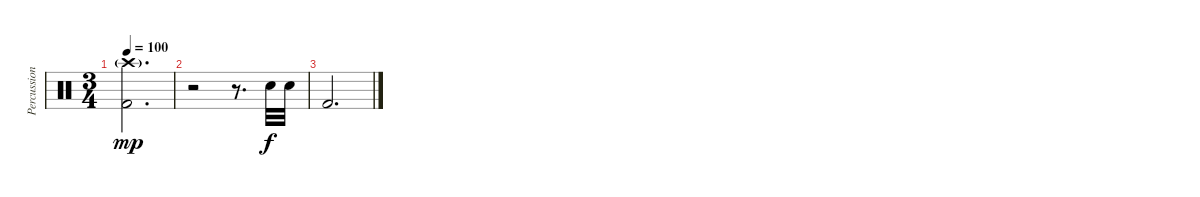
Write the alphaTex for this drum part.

\track ("Percussion" "Percussion") {instrument percussion}
\staff {score}
\articulation defaults
\ts (3 4)
\tempo 100
\clef neutral
\ks c
("Crash high (hit)"{g} "Kick (hit) 2").2{d dy mp} |
r.2 r.8{d} "Snare (hit) 2".32{dy f} "Snare (hit) 2".32 |
"Kick (hit) 2".2{d}
